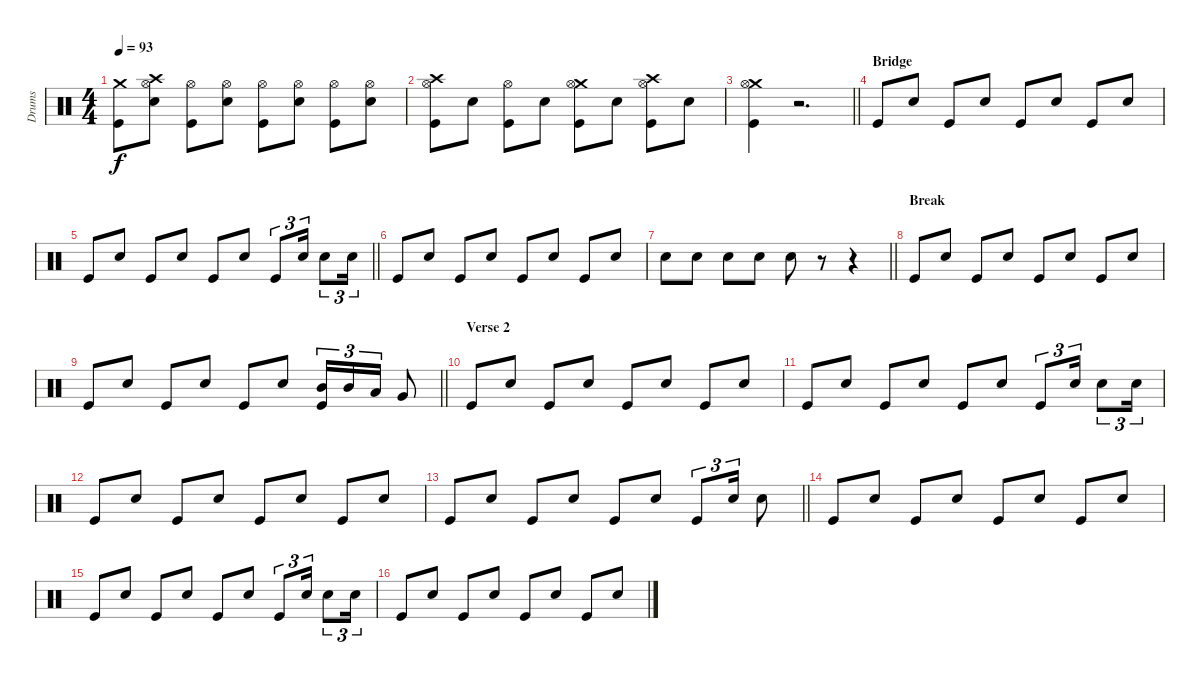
\track ("Drums" "Drums") {instrument percussion}
\staff {score}
\articulation defaults
\ts (4 4)
\tempo 93
\clef neutral
\ks c
("Crash medium (hit)" "Kick (hit)").8{dy f} ("Crash high (hit)" "Hi-Hat (open)" "Snare (hit) 2").8 ("Hi-Hat (open)" "Kick (hit)").8 ("Hi-Hat (open)" "Snare (hit) 2").8 ("Hi-Hat (open)" "Kick (hit)").8 ("Hi-Hat (open)" "Snare (hit) 2").8 ("Hi-Hat (open)" "Kick (hit)").8 ("Hi-Hat (open)" "Snare (hit) 2").8 |
("Crash high (hit)" "Hi-Hat (open)" "Kick (hit)").8 "Snare (hit) 2".8 ("Hi-Hat (open)" "Kick (hit)").8 "Snare (hit) 2".8 ("Crash medium (hit)" "Hi-Hat (open)" "Kick (hit)").8 "Snare (hit) 2".8 ("Crash high (hit)" "Hi-Hat (open)" "Kick (hit)").8 "Snare (hit) 2".8 |
\barLineRight lightlight
("Crash medium (hit)" "Hi-Hat (open)" "Kick (hit)").4 r.2{d} |
\section ("" "Bridge")
"Kick (hit)".8 "Snare (hit) 2".8 "Kick (hit)".8 "Snare (hit) 2".8 "Kick (hit)".8 "Snare (hit) 2".8 "Kick (hit)".8 "Snare (hit) 2".8 |
\barLineRight lightlight "Kick (hit)".8 "Snare (hit) 2".8 "Kick (hit)".8 "Snare (hit) 2".8 "Kick (hit)".8 "Snare (hit) 2".8 "Kick (hit)".8{tu (3 2)} "Snare (hit) 2".16{tu (3 2)} "Snare (hit) 2".8{tu (3 2)} "Snare (hit) 2".16{tu (3 2)}
|
"Kick (hit)".8 "Snare (hit) 2".8 "Kick (hit)".8 "Snare (hit) 2".8 "Kick (hit)".8 "Snare (hit) 2".8 "Kick (hit)".8 "Snare (hit) 2".8 |
\barLineRight lightlight "Snare (hit) 2".8 "Snare (hit) 2".8 "Snare (hit) 2".8 "Snare (hit) 2".8 "Snare (hit) 2".8
r.8 r.4 |
\section ("" "Break")
"Kick (hit)".8 "Snare (hit) 2".8 "Kick (hit)".8 "Snare (hit) 2".8 "Kick (hit)".8 "Snare (hit) 2".8 "Kick (hit)".8 "Snare (hit) 2".8 |
\barLineRight lightlight "Kick (hit)".8 "Snare (hit) 2".8 "Kick (hit)".8 "Snare (hit) 2".8 "Kick (hit)".8 "Snare (hit) 2".8
("Mid Tom (hit)" "Kick (hit)").16{tu (3 2)} "Mid Tom (hit)".16{tu (3 2)} "Low Tom (hit)".16{tu (3 2)} "Very Low Tom (hit)".8 |
\section ("" "Verse 2")
"Kick (hit)".8 "Snare (hit) 2".8 "Kick (hit)".8 "Snare (hit) 2".8 "Kick (hit)".8 "Snare (hit) 2".8 "Kick (hit)".8 "Snare (hit) 2".8 |
"Kick (hit)".8 "Snare (hit) 2".8 "Kick (hit)".8 "Snare (hit) 2".8 "Kick (hit)".8 "Snare (hit) 2".8 "Kick (hit)".8{tu (3 2)} "Snare (hit) 2".16{tu (3 2)} "Snare (hit) 2".8{tu (3 2)} "Snare (hit) 2".16{tu (3 2)} |
"Kick (hit)".8 "Snare (hit) 2".8 "Kick (hit)".8 "Snare (hit) 2".8 "Kick (hit)".8 "Snare (hit) 2".8 "Kick (hit)".8 "Snare (hit) 2".8 |
\barLineRight lightlight "Kick (hit)".8 "Snare (hit) 2".8 "Kick (hit)".8 "Snare (hit) 2".8 "Kick (hit)".8 "Snare (hit) 2".8 "Kick (hit)".8{tu (3 2)} "Snare (hit) 2".16{tu (3 2)} "Snare (hit) 2".8
|
"Kick (hit)".8 "Snare (hit) 2".8 "Kick (hit)".8 "Snare (hit) 2".8 "Kick (hit)".8 "Snare (hit) 2".8 "Kick (hit)".8 "Snare (hit) 2".8 |
"Kick (hit)".8 "Snare (hit) 2".8 "Kick (hit)".8 "Snare (hit) 2".8 "Kick (hit)".8 "Snare (hit) 2".8 "Kick (hit)".8{tu (3 2)} "Snare (hit) 2".16{tu (3 2)} "Snare (hit) 2".8{tu (3 2)} "Snare (hit) 2".16{tu (3 2)} |
"Kick (hit)".8 "Snare (hit) 2".8 "Kick (hit)".8 "Snare (hit) 2".8 "Kick (hit)".8 "Snare (hit) 2".8 "Kick (hit)".8 "Snare (hit) 2".8
